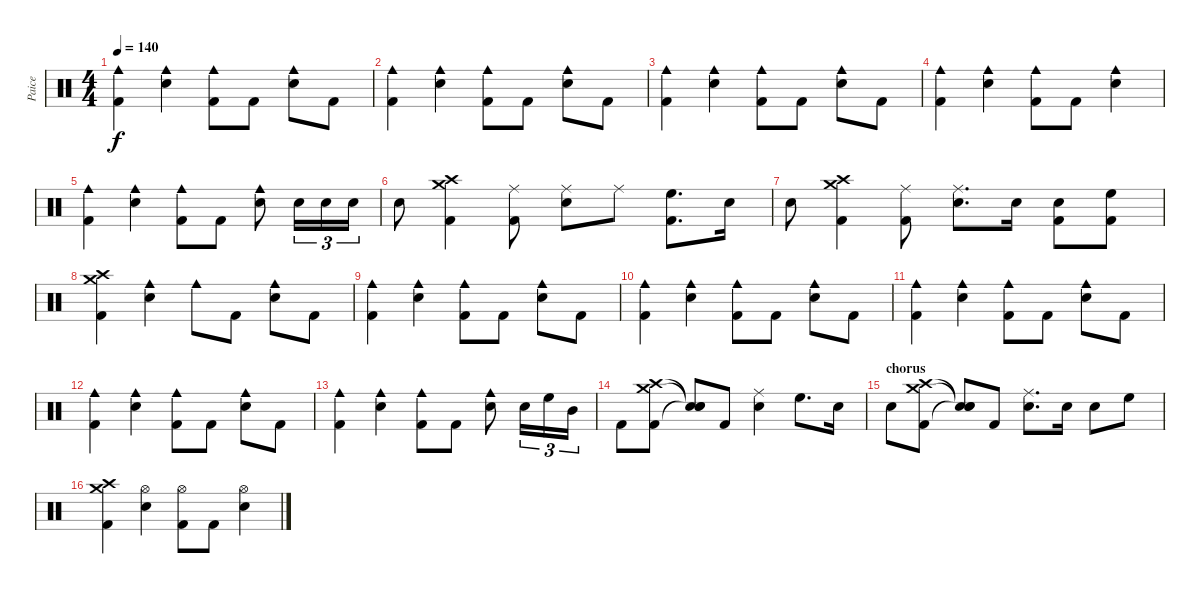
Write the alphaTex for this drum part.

\track ("Paice" "Paice") {instrument percussion}
\staff {score}
\articulation defaults
\ts (4 4)
\tempo 140
\clef neutral
\ks c
("Cowbell medium (hit)" "Kick (hit) 2").4{dy f} ("Cowbell medium (hit)" "Electric Snare (hit)").4 ("Cowbell medium (hit)" "Kick (hit) 2").8 "Kick (hit) 2".8 ("Cowbell medium (hit)" "Electric Snare (hit)").8 "Kick (hit) 2".8 |
("Cowbell medium (hit)" "Kick (hit) 2").4 ("Cowbell medium (hit)" "Electric Snare (hit)").4 ("Cowbell medium (hit)" "Kick (hit) 2").8 "Kick (hit) 2".8 ("Cowbell medium (hit)" "Electric Snare (hit)").8 "Kick (hit) 2".8 |
("Cowbell medium (hit)" "Kick (hit) 2").4 ("Cowbell medium (hit)" "Electric Snare (hit)").4 ("Cowbell medium (hit)" "Kick (hit) 2").8 "Kick (hit) 2".8 ("Cowbell medium (hit)" "Electric Snare (hit)").8 "Kick (hit) 2".8 |
("Cowbell medium (hit)" "Kick (hit) 2").4 ("Cowbell medium (hit)" "Electric Snare (hit)").4 ("Cowbell medium (hit)" "Kick (hit) 2").8 "Kick (hit) 2".8 ("Cowbell medium (hit)" "Electric Snare (hit)").4 |
("Cowbell medium (hit)" "Kick (hit) 2").4 ("Cowbell medium (hit)" "Electric Snare (hit)").4 ("Cowbell medium (hit)" "Kick (hit) 2").8 "Kick (hit) 2".8 ("Cowbell medium (hit)" "Electric Snare (hit)").8 "Electric Snare (hit)".16{tu (3 2)} "Electric Snare (hit)".16{tu (3 2)} "Electric Snare (hit)".16{tu (3 2)} |
"Electric Snare (hit)".8 ("Crash high (hit)" "Crash medium (hit)" "Kick (hit) 2").4 ("Ride (middle)" "Kick (hit) 2").8 ("Ride (middle)" "Electric Snare (hit)").8 "Ride (middle)".8 ("High Floor Tom (hit)" "Kick (hit) 2").8{d} "Electric Snare (hit)".16 |
"Electric Snare (hit)".8 ("Crash high (hit)" "Crash medium (hit)" "Kick (hit) 2").4 ("Ride (middle)" "Kick (hit) 2").8 ("Ride (middle)" "Electric Snare (hit)").8{d} "Electric Snare (hit)".16 ("Electric Snare (hit)" "Kick (hit) 2").8 ("High Floor Tom (hit)" "Kick (hit) 2").8 |
("Crash high (hit)" "Crash medium (hit)" "Kick (hit) 2").4 ("Cowbell medium (hit)" "Electric Snare (hit)").4 "Cowbell medium (hit)".8 "Kick (hit) 2".8 ("Cowbell medium (hit)" "Electric Snare (hit)").8 "Kick (hit) 2".8 |
("Cowbell medium (hit)" "Kick (hit) 2").4 ("Cowbell medium (hit)" "Electric Snare (hit)").4 ("Cowbell medium (hit)" "Kick (hit) 2").8 "Kick (hit) 2".8 ("Cowbell medium (hit)" "Electric Snare (hit)").8 "Kick (hit) 2".8 |
("Cowbell medium (hit)" "Kick (hit) 2").4 ("Cowbell medium (hit)" "Electric Snare (hit)").4 ("Cowbell medium (hit)" "Kick (hit) 2").8 "Kick (hit) 2".8 ("Cowbell medium (hit)" "Electric Snare (hit)").8 "Kick (hit) 2".8 |
("Cowbell medium (hit)" "Kick (hit) 2").4 ("Cowbell medium (hit)" "Electric Snare (hit)").4 ("Cowbell medium (hit)" "Kick (hit) 2").8 "Kick (hit) 2".8 ("Cowbell medium (hit)" "Electric Snare (hit)").8 "Kick (hit) 2".8 |
("Cowbell medium (hit)" "Kick (hit) 2").4 ("Cowbell medium (hit)" "Electric Snare (hit)").4 ("Cowbell medium (hit)" "Kick (hit) 2").8 "Kick (hit) 2".8 ("Cowbell medium (hit)" "Electric Snare (hit)").8 "Kick (hit) 2".8 |
("Cowbell medium (hit)" "Kick (hit) 2").4 ("Cowbell medium (hit)" "Electric Snare (hit)").4 ("Cowbell medium (hit)" "Kick (hit) 2").8 "Kick (hit) 2".8 ("Cowbell medium (hit)" "Electric Snare (hit)").8 "Electric Snare (hit)".16{tu (3 2)} "High Floor Tom (hit)".16{tu (3 2)} "Mid Tom (hit)".16{tu (3 2)} |
"Kick (hit) 2".8 ("Crash high (hit)" "Crash medium (hit)" "Kick (hit) 2").8 ("Snare (hit)"{t} "Snare (hit)"{t} "Snare (hit)"{t}).8 "Kick (hit) 2".8 ("Ride (middle)" "Electric Snare (hit)").4 "High Floor Tom (hit)".8{d} "Electric Snare (hit)".16 |
\section ("" "chorus")
"Electric Snare (hit)".8 ("Crash high (hit)" "Crash medium (hit)" "Kick (hit) 2").8 ("Snare (hit)"{t} "Snare (hit)"{t} "Snare (hit)"{t}).8 "Kick (hit) 2".8 ("Ride (middle)" "Electric Snare (hit)").8{d} "Electric Snare (hit)".16 "Electric Snare (hit)".8 "High Floor Tom (hit)".8 |
("Crash high (hit)" "Crash medium (hit)" "Kick (hit) 2").4 ("Hi-Hat (open)" "Electric Snare (hit)").4 ("Hi-Hat (open)" "Kick (hit) 2").8 "Kick (hit) 2".8 ("Hi-Hat (open)" "Electric Snare (hit)").4
